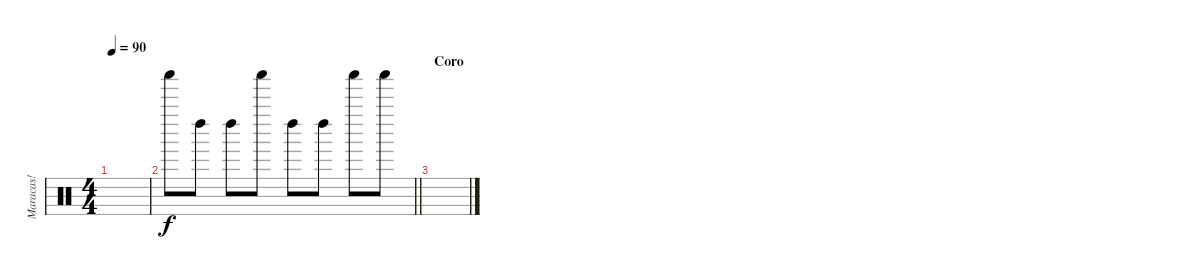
\track ("Maracas!" "Maracas!") {instrument percussion}
\staff {score}
\articulation defaults
\ts (4 4)
\tempo 90
\clef neutral
\ks c
|
\barLineRight lightlight "Shaker (hit)".8 "Left Maraca (hit)".8 "Left Maraca (hit)".8 "Shaker (hit)".8 "Left Maraca (hit)".8 "Left Maraca (hit)".8 "Shaker (hit)".8 "Shaker (hit)".8
|
\section ("" "Coro")
